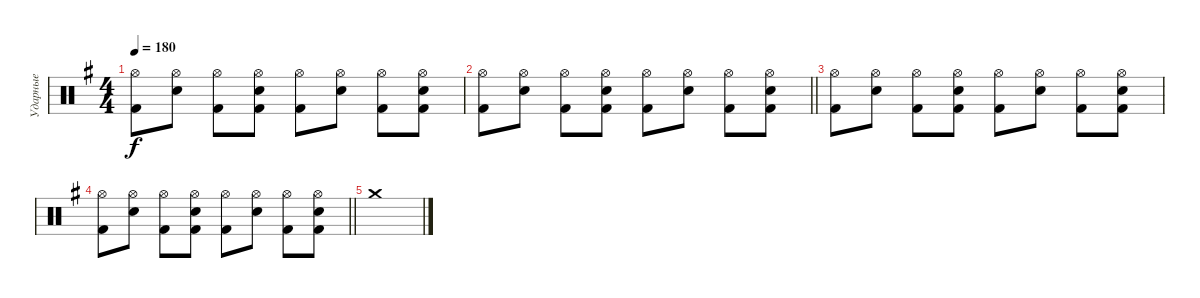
\track ("Ударные" "Ударные") {instrument percussion}
\staff {score}
\articulation defaults
\ts (4 4)
\tempo 180
\clef neutral
\ks g
("Kick (hit) 2" "Hi-Hat (open)").8{dy f} ("Hi-Hat (open)" "Electric Snare (hit)").8 ("Kick (hit) 2" "Hi-Hat (open)").8 ("Kick (hit) 2" "Hi-Hat (open)" "Electric Snare (hit)").8 ("Kick (hit) 2" "Hi-Hat (open)").8 ("Hi-Hat (open)" "Electric Snare (hit)").8 ("Kick (hit) 2" "Hi-Hat (open)").8 ("Kick (hit) 2" "Hi-Hat (open)" "Electric Snare (hit)").8 |
\barLineRight lightlight
("Kick (hit) 2" "Hi-Hat (open)").8 ("Hi-Hat (open)" "Electric Snare (hit)").8 ("Kick (hit) 2" "Hi-Hat (open)").8 ("Kick (hit) 2" "Hi-Hat (open)" "Electric Snare (hit)").8 ("Kick (hit) 2" "Hi-Hat (open)").8 ("Hi-Hat (open)" "Electric Snare (hit)").8 ("Kick (hit) 2" "Hi-Hat (open)").8 ("Kick (hit) 2" "Hi-Hat (open)" "Electric Snare (hit)").8 |
\section ("" "")
("Kick (hit) 2" "Hi-Hat (open)").8 ("Hi-Hat (open)" "Electric Snare (hit)").8 ("Kick (hit) 2" "Hi-Hat (open)").8 ("Kick (hit) 2" "Hi-Hat (open)" "Electric Snare (hit)").8 ("Kick (hit) 2" "Hi-Hat (open)").8 ("Hi-Hat (open)" "Electric Snare (hit)").8 ("Kick (hit) 2" "Hi-Hat (open)").8 ("Kick (hit) 2" "Hi-Hat (open)" "Electric Snare (hit)").8 |
\barLineRight lightlight
("Kick (hit) 2" "Hi-Hat (open)").8 ("Hi-Hat (open)" "Electric Snare (hit)").8 ("Kick (hit) 2" "Hi-Hat (open)").8 ("Kick (hit) 2" "Hi-Hat (open)" "Electric Snare (hit)").8 ("Kick (hit) 2" "Hi-Hat (open)").8 ("Hi-Hat (open)" "Electric Snare (hit)").8 ("Kick (hit) 2" "Hi-Hat (open)").8 ("Kick (hit) 2" "Hi-Hat (open)" "Electric Snare (hit)").8 |
"Crash medium (hit)".1
